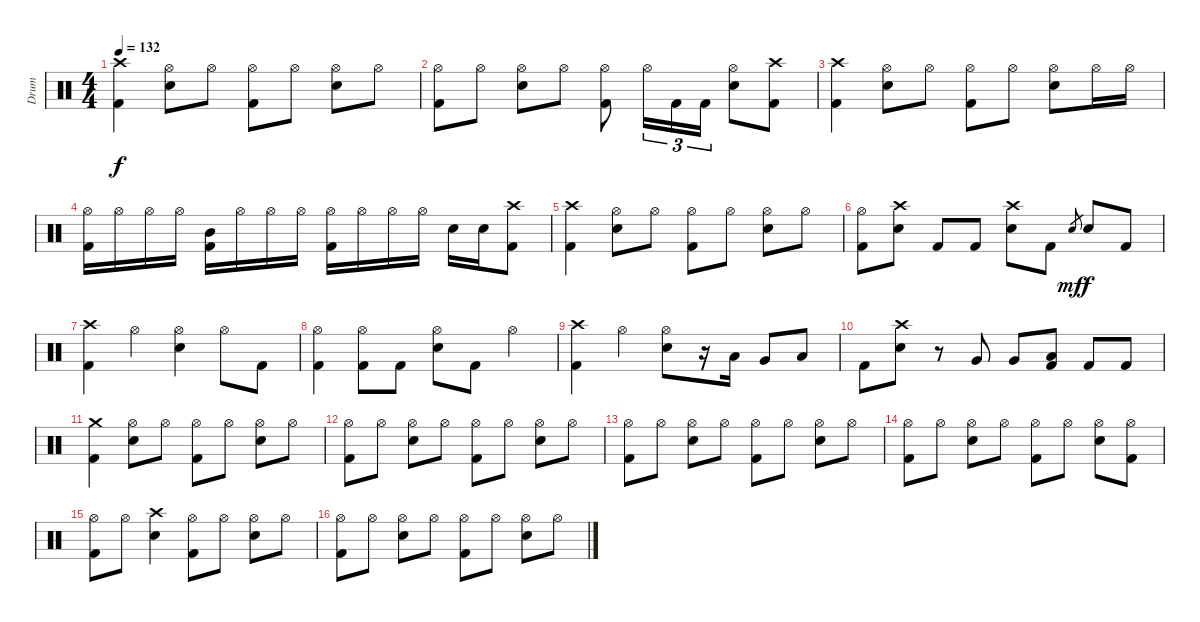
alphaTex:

\track ("Drum" "Drum") {instrument percussion}
\staff {score}
\articulation defaults
\ts (4 4)
\tempo 132
\clef neutral
\ks c
("Crash high (hit)" "Kick (hit) 2").4{dy f} ("Hi-Hat (open)" "Snare (hit) 2").8 "Hi-Hat (open)".8 ("Hi-Hat (open)" "Kick (hit) 2").8 "Hi-Hat (open)".8 ("Hi-Hat (open)" "Snare (hit) 2").8 "Hi-Hat (open)".8 |
("Hi-Hat (open)" "Kick (hit) 2").8 "Hi-Hat (open)".8 ("Hi-Hat (open)" "Snare (hit) 2").8 "Hi-Hat (open)".8 ("Hi-Hat (open)" "Kick (hit) 2").8 "Hi-Hat (open)".16{tu (3 2)} "Kick (hit) 2".16{tu (3 2)} "Kick (hit) 2".16{tu (3 2)} ("Hi-Hat (open)" "Snare (hit) 2").8 ("Crash high (hit)" "Kick (hit) 2").8 |
("Crash high (hit)" "Kick (hit) 2").4 ("Hi-Hat (open)" "Snare (hit) 2").8 "Hi-Hat (open)".8 ("Hi-Hat (open)" "Kick (hit) 2").8 "Hi-Hat (open)".8 ("Hi-Hat (open)" "Snare (hit) 2").8 "Hi-Hat (open)".16 "Hi-Hat (open)".16 |
("Hi-Hat (open)" "Kick (hit) 2").16 "Hi-Hat (open)".16 "Hi-Hat (open)".16 "Hi-Hat (open)".16 ("Mid Tom (hit)" "Kick (hit) 2").16 "Hi-Hat (open)".16 "Hi-Hat (open)".16 "Hi-Hat (open)".16 ("Hi-Hat (open)" "Kick (hit) 2").16 "Hi-Hat (open)".16 "Hi-Hat (open)".16 "Hi-Hat (open)".16 "Snare (hit) 2".16 "Snare (hit) 2".16 ("Crash high (hit)" "Kick (hit) 2").8 |
("Crash high (hit)" "Kick (hit) 2").4 ("Hi-Hat (open)" "Snare (hit) 2").8 "Hi-Hat (open)".8 ("Hi-Hat (open)" "Kick (hit) 2").8 "Hi-Hat (open)".8 ("Hi-Hat (open)" "Snare (hit) 2").8 "Hi-Hat (open)".8 |
("Hi-Hat (open)" "Kick (hit) 2").8 ("Crash high (hit)" "Snare (hit) 2").8 "Kick (hit) 2".8 "Kick (hit) 2".8 ("Crash high (hit)" "Snare (hit) 2").8 "Kick (hit) 2".8 "Snare (hit)".8{gr dy mf} "Snare (hit) 2".8{dy f} "Kick (hit) 2".8 |
("Crash high (hit)" "Kick (hit) 2").4 "Hi-Hat (open)".4 ("Hi-Hat (open)" "Snare (hit) 2").4 "Hi-Hat (open)".8 "Kick (hit) 2".8 |
("Hi-Hat (open)" "Kick (hit) 2").4 ("Hi-Hat (open)" "Kick (hit) 2").8 "Kick (hit) 2".8 ("Hi-Hat (open)" "Snare (hit) 2").8 "Kick (hit) 2".8 "Hi-Hat (open)".4 |
("Crash high (hit)" "Kick (hit) 2").4 "Hi-Hat (open)".4 ("Hi-Hat (open)" "Snare (hit) 2").8 r.16 "Low Tom (hit)".16 "Very Low Tom (hit)".8 "Low Floor Tom (hit)".8 |
"Kick (hit) 2".8 ("Crash high (hit)" "Snare (hit) 2").8 r.8 "Very Low Tom (hit)".8 "Very Low Tom (hit)".8 ("Low Floor Tom (hit)" "Kick (hit) 2").8 "Kick (hit) 2".8 "Kick (hit) 2".8 |
("Crash medium (hit)" "Kick (hit) 2").4 ("Hi-Hat (open)" "Snare (hit) 2").8 "Hi-Hat (open)".8 ("Hi-Hat (open)" "Kick (hit) 2").8 "Hi-Hat (open)".8 ("Hi-Hat (open)" "Snare (hit) 2").8 "Hi-Hat (open)".8 |
("Hi-Hat (open)" "Kick (hit) 2").8 "Hi-Hat (open)".8 ("Hi-Hat (open)" "Snare (hit) 2").8 "Hi-Hat (open)".8 ("Hi-Hat (open)" "Kick (hit) 2").8 "Hi-Hat (open)".8 ("Hi-Hat (open)" "Snare (hit) 2").8 "Hi-Hat (open)".8 |
("Hi-Hat (open)" "Kick (hit) 2").8 "Hi-Hat (open)".8 ("Hi-Hat (open)" "Snare (hit) 2").8 "Hi-Hat (open)".8 ("Hi-Hat (open)" "Kick (hit) 2").8 "Hi-Hat (open)".8 ("Hi-Hat (open)" "Snare (hit) 2").8 "Hi-Hat (open)".8 |
("Hi-Hat (open)" "Kick (hit) 2").8 "Hi-Hat (open)".8 ("Hi-Hat (open)" "Snare (hit) 2").8 "Hi-Hat (open)".8 ("Hi-Hat (open)" "Kick (hit) 2").8 "Hi-Hat (open)".8 ("Hi-Hat (open)" "Snare (hit) 2").8 ("Hi-Hat (open)" "Kick (hit) 2").8 |
("Hi-Hat (open)" "Kick (hit) 2").8 "Hi-Hat (open)".8 ("Crash high (hit)" "Snare (hit) 2").4 ("Hi-Hat (open)" "Kick (hit) 2").8 "Hi-Hat (open)".8 ("Hi-Hat (open)" "Snare (hit) 2").8 "Hi-Hat (open)".8 |
("Hi-Hat (open)" "Kick (hit) 2").8 "Hi-Hat (open)".8 ("Hi-Hat (open)" "Snare (hit) 2").8 "Hi-Hat (open)".8 ("Hi-Hat (open)" "Kick (hit) 2").8 "Hi-Hat (open)".8 ("Hi-Hat (open)" "Snare (hit) 2").8 "Hi-Hat (open)".8
